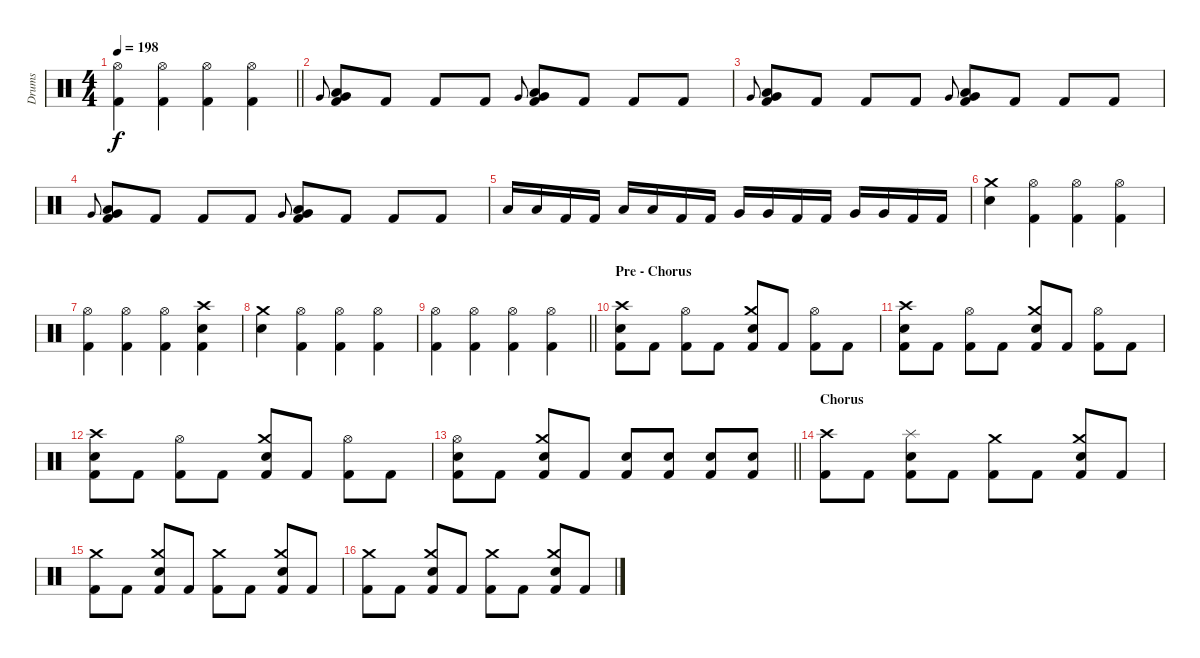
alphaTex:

\track ("Drums" "Drums") {instrument percussion}
\staff {score}
\articulation defaults
\ts (4 4)
\tempo 198
\clef neutral
\barLineRight lightlight
\ks c
("Hi-Hat (open)" "Kick (hit) 2").4{dy f} ("Hi-Hat (open)" "Kick (hit) 2").4 ("Hi-Hat (open)" "Kick (hit) 2").4 ("Hi-Hat (open)" "Kick (hit) 2").4 |
"Very Low Tom (hit)".8{gr onbeat} ("Very Low Tom (hit)" "Low Floor Tom (hit)" "Kick (hit) 2").8 "Kick (hit) 2".8 "Kick (hit) 2".8 "Kick (hit) 2".8 "Very Low Tom (hit)".8{gr onbeat} ("Very Low Tom (hit)" "Low Floor Tom (hit)" "Kick (hit) 2").8 "Kick (hit) 2".8 "Kick (hit) 2".8 "Kick (hit) 2".8 |
"Very Low Tom (hit)".8{gr onbeat} ("Very Low Tom (hit)" "Low Floor Tom (hit)" "Kick (hit) 2").8 "Kick (hit) 2".8 "Kick (hit) 2".8 "Kick (hit) 2".8 "Very Low Tom (hit)".8{gr onbeat} ("Very Low Tom (hit)" "Low Floor Tom (hit)" "Kick (hit) 2").8 "Kick (hit) 2".8 "Kick (hit) 2".8 "Kick (hit) 2".8 |
"Very Low Tom (hit)".8{gr onbeat} ("Very Low Tom (hit)" "Low Floor Tom (hit)" "Kick (hit) 2").8 "Kick (hit) 2".8 "Kick (hit) 2".8 "Kick (hit) 2".8 "Very Low Tom (hit)".8{gr onbeat} ("Very Low Tom (hit)" "Low Floor Tom (hit)" "Kick (hit) 2").8 "Kick (hit) 2".8 "Kick (hit) 2".8 "Kick (hit) 2".8 |
"Low Tom (hit)".16 "Low Tom (hit)".16 "Kick (hit) 2".16 "Kick (hit) 2".16 "Low Tom (hit)".16 "Low Tom (hit)".16 "Kick (hit) 2".16 "Kick (hit) 2".16 "Very Low Tom (hit)".16 "Very Low Tom (hit)".16 "Kick (hit) 2".16 "Kick (hit) 2".16 "Very Low Tom (hit)".16 "Very Low Tom (hit)".16 "Kick (hit) 2".16 "Kick (hit) 2".16 |
("Crash medium (hit)" "Electric Snare (hit)").4 ("Hi-Hat (open)" "Kick (hit) 2").4 ("Hi-Hat (open)" "Kick (hit) 2").4 ("Hi-Hat (open)" "Kick (hit) 2").4 |
("Hi-Hat (open)" "Kick (hit) 2").4 ("Hi-Hat (open)" "Kick (hit) 2").4 ("Hi-Hat (open)" "Kick (hit) 2").4 ("Crash high (hit)" "Electric Snare (hit)" "Kick (hit) 2").4 |
("Crash medium (hit)" "Electric Snare (hit)").4 ("Hi-Hat (open)" "Kick (hit) 2").4 ("Hi-Hat (open)" "Kick (hit) 2").4 ("Hi-Hat (open)" "Kick (hit) 2").4 |
\barLineRight lightlight
("Hi-Hat (open)" "Kick (hit) 2").4 ("Hi-Hat (open)" "Kick (hit) 2").4 ("Hi-Hat (open)" "Kick (hit) 2").4 ("Hi-Hat (open)" "Kick (hit) 2").4 |
\section ("" "Pre - Chorus")
("Crash high (hit)" "Electric Snare (hit)" "Kick (hit) 2").8 "Kick (hit) 2".8 ("Hi-Hat (open)" "Kick (hit) 2").8 "Kick (hit) 2".8 ("Crash medium (hit)" "Electric Snare (hit)" "Kick (hit) 2").8 "Kick (hit) 2".8 ("Hi-Hat (open)" "Kick (hit) 2").8 "Kick (hit) 2".8 |
("Crash high (hit)" "Electric Snare (hit)" "Kick (hit) 2").8 "Kick (hit) 2".8 ("Hi-Hat (open)" "Kick (hit) 2").8 "Kick (hit) 2".8 ("Crash medium (hit)" "Electric Snare (hit)" "Kick (hit) 2").8 "Kick (hit) 2".8 ("Hi-Hat (open)" "Kick (hit) 2").8 "Kick (hit) 2".8 |
("Crash high (hit)" "Electric Snare (hit)" "Kick (hit) 2").8 "Kick (hit) 2".8 ("Hi-Hat (open)" "Kick (hit) 2").8 "Kick (hit) 2".8 ("Crash medium (hit)" "Electric Snare (hit)" "Kick (hit) 2").8 "Kick (hit) 2".8 ("Hi-Hat (open)" "Kick (hit) 2").8 "Kick (hit) 2".8 |
\barLineRight lightlight
("Hi-Hat (open)" "Electric Snare (hit)" "Kick (hit) 2").8 "Kick (hit) 2".8 ("Crash medium (hit)" "Electric Snare (hit)" "Kick (hit) 2").8 "Kick (hit) 2".8 ("Electric Snare (hit)" "Kick (hit) 2").8 ("Electric Snare (hit)" "Kick (hit) 2").8 ("Electric Snare (hit)" "Kick (hit) 2").8 ("Electric Snare (hit)" "Kick (hit) 2").8 |
\section ("" "Chorus")
("Crash high (hit)" "Kick (hit) 2").8 "Kick (hit) 2".8 ("Splash (hit)" "Electric Snare (hit)" "Kick (hit) 2").8 "Kick (hit) 2".8 ("Crash medium (hit)" "Kick (hit) 2").8 "Kick (hit) 2".8 ("Crash medium (hit)" "Electric Snare (hit)" "Kick (hit) 2").8 "Kick (hit) 2".8 |
("Crash medium (hit)" "Kick (hit) 2").8 "Kick (hit) 2".8 ("Crash medium (hit)" "Electric Snare (hit)" "Kick (hit) 2").8 "Kick (hit) 2".8 ("Crash medium (hit)" "Kick (hit) 2").8 "Kick (hit) 2".8 ("Crash medium (hit)" "Electric Snare (hit)" "Kick (hit) 2").8 "Kick (hit) 2".8 |
("Crash medium (hit)" "Kick (hit) 2").8 "Kick (hit) 2".8 ("Crash medium (hit)" "Electric Snare (hit)" "Kick (hit) 2").8 "Kick (hit) 2".8 ("Crash medium (hit)" "Kick (hit) 2").8 "Kick (hit) 2".8 ("Crash medium (hit)" "Electric Snare (hit)" "Kick (hit) 2").8 "Kick (hit) 2".8
